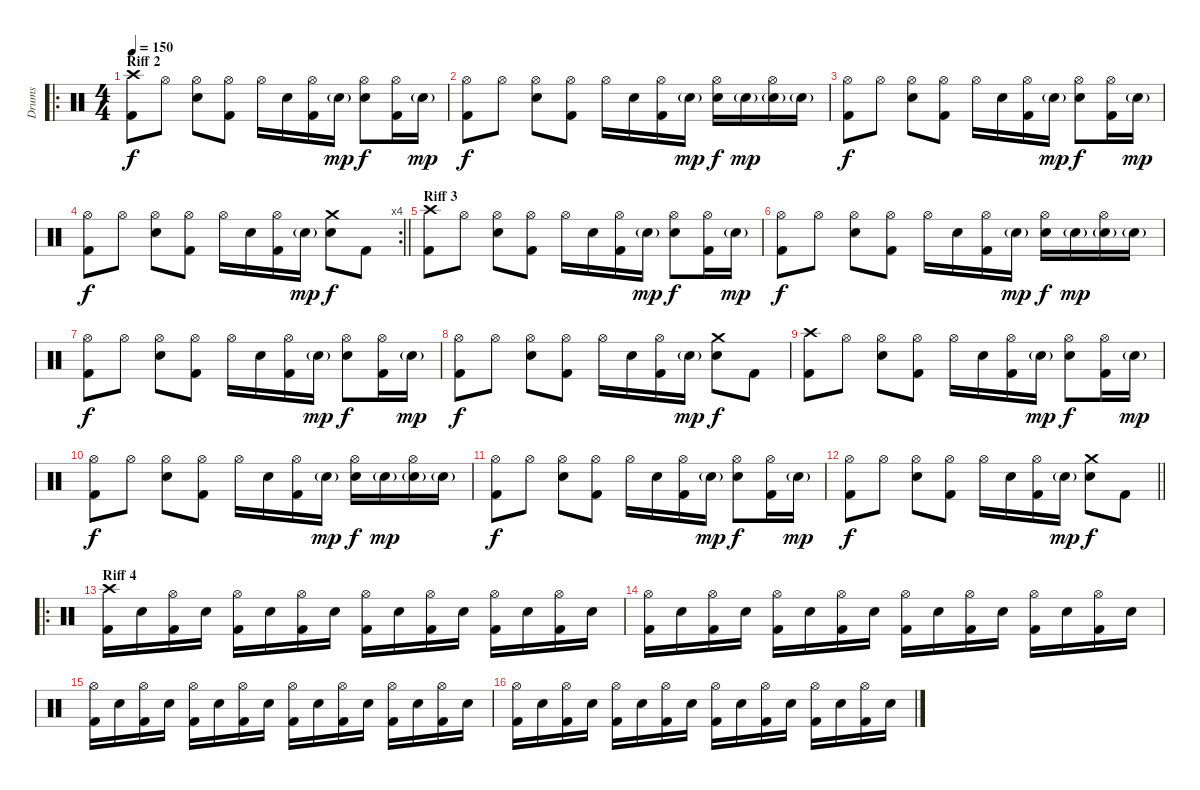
\track ("Drums" "Drums") {instrument percussion}
\staff {score}
\articulation defaults
\ro
\ts (4 4)
\section ("" "Riff 2")
\tempo 150
\clef neutral
\ks c
("Crash high (hit)" "Kick (hit) 2").8{dy f} "Hi-Hat (open)".8 ("Hi-Hat (open)" "Electric Snare (hit)").8 ("Hi-Hat (open)" "Kick (hit) 2").8 "Hi-Hat (open)".16 "Electric Snare (hit)".16 ("Hi-Hat (open)" "Kick (hit) 2").16 "Electric Snare (hit)"{g}.16{dy mp} ("Hi-Hat (open)" "Electric Snare (hit)").8{dy f} ("Hi-Hat (open)" "Kick (hit) 2").16 "Electric Snare (hit)"{g}.16{dy mp} |
("Hi-Hat (open)" "Kick (hit) 2").8{dy f} "Hi-Hat (open)".8 ("Hi-Hat (open)" "Electric Snare (hit)").8 ("Hi-Hat (open)" "Kick (hit) 2").8 "Hi-Hat (open)".16 "Electric Snare (hit)".16 ("Hi-Hat (open)" "Kick (hit) 2").16 "Electric Snare (hit)"{g}.16{dy mp} ("Hi-Hat (open)" "Electric Snare (hit)").16{dy f} "Electric Snare (hit)"{g}.16{dy mp} ("Hi-Hat (open)" "Electric Snare (hit)"{g}).16 "Electric Snare (hit)"{g}.16 |
("Hi-Hat (open)" "Kick (hit) 2").8{dy f} "Hi-Hat (open)".8 ("Hi-Hat (open)" "Electric Snare (hit)").8 ("Hi-Hat (open)" "Kick (hit) 2").8 "Hi-Hat (open)".16 "Electric Snare (hit)".16 ("Hi-Hat (open)" "Kick (hit) 2").16 "Electric Snare (hit)"{g}.16{dy mp} ("Hi-Hat (open)" "Electric Snare (hit)").8{dy f} ("Hi-Hat (open)" "Kick (hit) 2").16 "Electric Snare (hit)"{g}.16{dy mp} |
\rc 4
\barLineRight lightlight
("Hi-Hat (open)" "Kick (hit) 2").8{dy f} "Hi-Hat (open)".8 ("Hi-Hat (open)" "Electric Snare (hit)").8 ("Hi-Hat (open)" "Kick (hit) 2").8 "Hi-Hat (open)".16 "Electric Snare (hit)".16 ("Hi-Hat (open)" "Kick (hit) 2").16 "Electric Snare (hit)"{g}.16{dy mp} ("Crash medium (hit)" "Electric Snare (hit)").8{dy f} "Kick (hit) 2".8 |
\section ("" "Riff 3")
("Crash high (hit)" "Kick (hit) 2").8 "Hi-Hat (open)".8 ("Hi-Hat (open)" "Electric Snare (hit)").8 ("Hi-Hat (open)" "Kick (hit) 2").8 "Hi-Hat (open)".16 "Electric Snare (hit)".16 ("Hi-Hat (open)" "Kick (hit) 2").16 "Electric Snare (hit)"{g}.16{dy mp} ("Hi-Hat (open)" "Electric Snare (hit)").8{dy f} ("Hi-Hat (open)" "Kick (hit) 2").16 "Electric Snare (hit)"{g}.16{dy mp} |
("Hi-Hat (open)" "Kick (hit) 2").8{dy f} "Hi-Hat (open)".8 ("Hi-Hat (open)" "Electric Snare (hit)").8 ("Hi-Hat (open)" "Kick (hit) 2").8 "Hi-Hat (open)".16 "Electric Snare (hit)".16 ("Hi-Hat (open)" "Kick (hit) 2").16 "Electric Snare (hit)"{g}.16{dy mp} ("Hi-Hat (open)" "Electric Snare (hit)").16{dy f} "Electric Snare (hit)"{g}.16{dy mp} ("Hi-Hat (open)" "Electric Snare (hit)"{g}).16 "Electric Snare (hit)"{g}.16 |
("Hi-Hat (open)" "Kick (hit) 2").8{dy f} "Hi-Hat (open)".8 ("Hi-Hat (open)" "Electric Snare (hit)").8 ("Hi-Hat (open)" "Kick (hit) 2").8 "Hi-Hat (open)".16 "Electric Snare (hit)".16 ("Hi-Hat (open)" "Kick (hit) 2").16 "Electric Snare (hit)"{g}.16{dy mp} ("Hi-Hat (open)" "Electric Snare (hit)").8{dy f} ("Hi-Hat (open)" "Kick (hit) 2").16 "Electric Snare (hit)"{g}.16{dy mp} |
("Hi-Hat (open)" "Kick (hit) 2").8{dy f} "Hi-Hat (open)".8 ("Hi-Hat (open)" "Electric Snare (hit)").8 ("Hi-Hat (open)" "Kick (hit) 2").8 "Hi-Hat (open)".16 "Electric Snare (hit)".16 ("Hi-Hat (open)" "Kick (hit) 2").16 "Electric Snare (hit)"{g}.16{dy mp} ("Crash medium (hit)" "Electric Snare (hit)").8{dy f} "Kick (hit) 2".8 |
("Crash high (hit)" "Kick (hit) 2").8 "Hi-Hat (open)".8 ("Hi-Hat (open)" "Electric Snare (hit)").8 ("Hi-Hat (open)" "Kick (hit) 2").8 "Hi-Hat (open)".16 "Electric Snare (hit)".16 ("Hi-Hat (open)" "Kick (hit) 2").16 "Electric Snare (hit)"{g}.16{dy mp} ("Hi-Hat (open)" "Electric Snare (hit)").8{dy f} ("Hi-Hat (open)" "Kick (hit) 2").16 "Electric Snare (hit)"{g}.16{dy mp} |
("Hi-Hat (open)" "Kick (hit) 2").8{dy f} "Hi-Hat (open)".8 ("Hi-Hat (open)" "Electric Snare (hit)").8 ("Hi-Hat (open)" "Kick (hit) 2").8 "Hi-Hat (open)".16 "Electric Snare (hit)".16 ("Hi-Hat (open)" "Kick (hit) 2").16 "Electric Snare (hit)"{g}.16{dy mp} ("Hi-Hat (open)" "Electric Snare (hit)").16{dy f} "Electric Snare (hit)"{g}.16{dy mp} ("Hi-Hat (open)" "Electric Snare (hit)"{g}).16 "Electric Snare (hit)"{g}.16 |
("Hi-Hat (open)" "Kick (hit) 2").8{dy f} "Hi-Hat (open)".8 ("Hi-Hat (open)" "Electric Snare (hit)").8 ("Hi-Hat (open)" "Kick (hit) 2").8 "Hi-Hat (open)".16 "Electric Snare (hit)".16 ("Hi-Hat (open)" "Kick (hit) 2").16 "Electric Snare (hit)"{g}.16{dy mp} ("Hi-Hat (open)" "Electric Snare (hit)").8{dy f} ("Hi-Hat (open)" "Kick (hit) 2").16 "Electric Snare (hit)"{g}.16{dy mp} |
\barLineRight lightlight
("Hi-Hat (open)" "Kick (hit) 2").8{dy f} "Hi-Hat (open)".8 ("Hi-Hat (open)" "Electric Snare (hit)").8 ("Hi-Hat (open)" "Kick (hit) 2").8 "Hi-Hat (open)".16 "Electric Snare (hit)".16 ("Hi-Hat (open)" "Kick (hit) 2").16 "Electric Snare (hit)"{g}.16{dy mp} ("Crash medium (hit)" "Electric Snare (hit)").8{dy f} "Kick (hit) 2".8 |
\ro
\section ("" "Riff 4")
("Crash high (hit)" "Kick (hit) 2").16 "Electric Snare (hit)".16 ("Hi-Hat (open)" "Kick (hit) 2").16 "Electric Snare (hit)".16 ("Hi-Hat (open)" "Kick (hit) 2").16 "Electric Snare (hit)".16 ("Hi-Hat (open)" "Kick (hit) 2").16 "Electric Snare (hit)".16 ("Hi-Hat (open)" "Kick (hit) 2").16 "Electric Snare (hit)".16 ("Hi-Hat (open)" "Kick (hit) 2").16 "Electric Snare (hit)".16 ("Hi-Hat (open)" "Kick (hit) 2").16 "Electric Snare (hit)".16 ("Hi-Hat (open)" "Kick (hit) 2").16 "Electric Snare (hit)".16 |
("Hi-Hat (open)" "Kick (hit) 2").16 "Electric Snare (hit)".16 ("Hi-Hat (open)" "Kick (hit) 2").16 "Electric Snare (hit)".16 ("Hi-Hat (open)" "Kick (hit) 2").16 "Electric Snare (hit)".16 ("Hi-Hat (open)" "Kick (hit) 2").16 "Electric Snare (hit)".16 ("Hi-Hat (open)" "Kick (hit) 2").16 "Electric Snare (hit)".16 ("Hi-Hat (open)" "Kick (hit) 2").16 "Electric Snare (hit)".16 ("Hi-Hat (open)" "Kick (hit) 2").16 "Electric Snare (hit)".16 ("Hi-Hat (open)" "Kick (hit) 2").16 "Electric Snare (hit)".16 |
("Hi-Hat (open)" "Kick (hit) 2").16 "Electric Snare (hit)".16 ("Hi-Hat (open)" "Kick (hit) 2").16 "Electric Snare (hit)".16 ("Hi-Hat (open)" "Kick (hit) 2").16 "Electric Snare (hit)".16 ("Hi-Hat (open)" "Kick (hit) 2").16 "Electric Snare (hit)".16 ("Hi-Hat (open)" "Kick (hit) 2").16 "Electric Snare (hit)".16 ("Hi-Hat (open)" "Kick (hit) 2").16 "Electric Snare (hit)".16 ("Hi-Hat (open)" "Kick (hit) 2").16 "Electric Snare (hit)".16 ("Hi-Hat (open)" "Kick (hit) 2").16 "Electric Snare (hit)".16 |
("Hi-Hat (open)" "Kick (hit) 2").16 "Electric Snare (hit)".16 ("Hi-Hat (open)" "Kick (hit) 2").16 "Electric Snare (hit)".16 ("Hi-Hat (open)" "Kick (hit) 2").16 "Electric Snare (hit)".16 ("Hi-Hat (open)" "Kick (hit) 2").16 "Electric Snare (hit)".16 ("Hi-Hat (open)" "Kick (hit) 2").16 "Electric Snare (hit)".16 ("Hi-Hat (open)" "Kick (hit) 2").16 "Electric Snare (hit)".16 ("Hi-Hat (open)" "Kick (hit) 2").16 "Electric Snare (hit)".16 ("Hi-Hat (open)" "Kick (hit) 2").16 "Electric Snare (hit)".16
